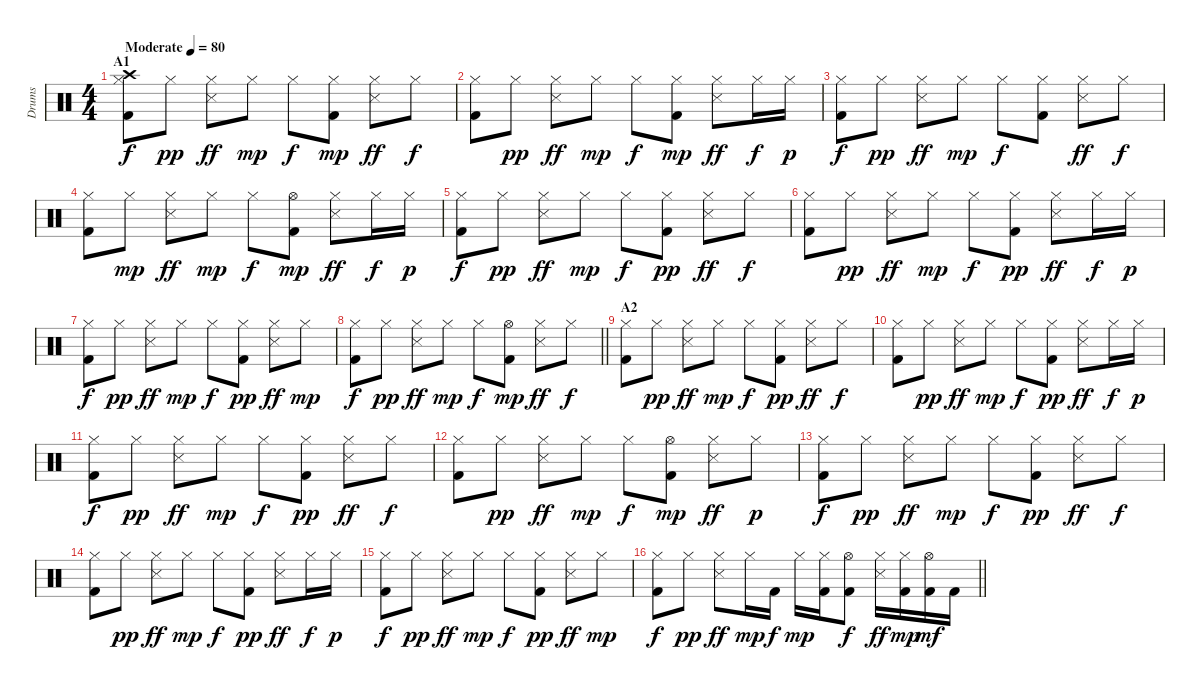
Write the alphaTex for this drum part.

\track ("Drums" "Drums") {instrument percussion}
\staff {score}
\articulation defaults
\ts (4 4)
\section ("" "A1")
\tempo (80 "Moderate")
\clef neutral
\ks c
("Hi-Hat (closed)" "Kick (hit) 2" "Crash high (hit)").8{dy f} "Hi-Hat (closed)".8{dy pp} ("Hi-Hat (closed)" "Snare (side stick) 3").8{dy ff} "Hi-Hat (closed)".8{dy mp} "Hi-Hat (closed)".8{dy f} ("Hi-Hat (closed)" "Kick (hit) 2").8{dy mp} ("Hi-Hat (closed)" "Snare (side stick) 3").8{dy ff} "Hi-Hat (closed)".8{dy f} |
("Hi-Hat (closed)" "Kick (hit) 2").8 "Hi-Hat (closed)".8{dy pp} ("Hi-Hat (closed)" "Snare (side stick) 3").8{dy ff} "Hi-Hat (closed)".8{dy mp} "Hi-Hat (closed)".8{dy f} ("Hi-Hat (closed)" "Kick (hit) 2").8{dy mp} ("Hi-Hat (closed)" "Snare (side stick) 3").8{dy ff} "Hi-Hat (closed)".16{dy f} "Hi-Hat (closed)".16{dy p} |
("Hi-Hat (closed)" "Kick (hit) 2").8{dy f} "Hi-Hat (closed)".8{dy pp} ("Hi-Hat (closed)" "Snare (side stick) 3").8{dy ff} "Hi-Hat (closed)".8{dy mp} "Hi-Hat (closed)".8{dy f} ("Hi-Hat (closed)" "Kick (hit) 2").8 ("Hi-Hat (closed)" "Snare (side stick) 3").8{dy ff} "Hi-Hat (closed)".8{dy f} |
("Hi-Hat (closed)" "Kick (hit) 2").8 "Hi-Hat (closed)".8{dy mp} ("Hi-Hat (closed)" "Snare (side stick) 3").8{dy ff} "Hi-Hat (closed)".8{dy mp} "Hi-Hat (closed)".8{dy f} ("Hi-Hat (open)" "Kick (hit) 2").8{dy mp} ("Hi-Hat (closed)" "Snare (side stick) 3").8{dy ff} "Hi-Hat (closed)".16{dy f} "Hi-Hat (closed)".16{dy p} |
("Hi-Hat (closed)" "Kick (hit) 2").8{dy f} "Hi-Hat (closed)".8{dy pp} ("Hi-Hat (closed)" "Snare (side stick) 3").8{dy ff} "Hi-Hat (closed)".8{dy mp} "Hi-Hat (closed)".8{dy f} ("Hi-Hat (closed)" "Kick (hit) 2").8{dy pp} ("Hi-Hat (closed)" "Snare (side stick) 3").8{dy ff} "Hi-Hat (closed)".8{dy f} |
("Hi-Hat (closed)" "Kick (hit) 2").8 "Hi-Hat (closed)".8{dy pp} ("Hi-Hat (closed)" "Snare (side stick) 3").8{dy ff} "Hi-Hat (closed)".8{dy mp} "Hi-Hat (closed)".8{dy f} ("Hi-Hat (closed)" "Kick (hit) 2").8{dy pp} ("Hi-Hat (closed)" "Snare (side stick) 3").8{dy ff} "Hi-Hat (closed)".16{dy f} "Hi-Hat (closed)".16{dy p} |
("Hi-Hat (closed)" "Kick (hit) 2").8{dy f} "Hi-Hat (closed)".8{dy pp} ("Hi-Hat (closed)" "Snare (side stick) 3").8{dy ff} "Hi-Hat (closed)".8{dy mp} "Hi-Hat (closed)".8{dy f} ("Hi-Hat (closed)" "Kick (hit) 2").8{dy pp} ("Hi-Hat (closed)" "Snare (side stick) 3").8{dy ff} "Hi-Hat (closed)".8{dy mp} |
\barLineRight lightlight
("Hi-Hat (closed)" "Kick (hit) 2").8{dy f} "Hi-Hat (closed)".8{dy pp} ("Hi-Hat (closed)" "Snare (side stick) 3").8{dy ff} "Hi-Hat (closed)".8{dy mp} "Hi-Hat (closed)".8{dy f} ("Hi-Hat (open)" "Kick (hit) 2").8{dy mp} ("Hi-Hat (closed)" "Snare (side stick) 3").8{dy ff} "Hi-Hat (closed)".8{dy f} |
\section ("" "A2")
("Hi-Hat (closed)" "Kick (hit) 2").8 "Hi-Hat (closed)".8{dy pp} ("Hi-Hat (closed)" "Snare (side stick) 3").8{dy ff} "Hi-Hat (closed)".8{dy mp} "Hi-Hat (closed)".8{dy f} ("Hi-Hat (closed)" "Kick (hit) 2").8{dy pp} ("Hi-Hat (closed)" "Snare (side stick) 3").8{dy ff} "Hi-Hat (closed)".8{dy f} |
("Hi-Hat (closed)" "Kick (hit) 2").8 "Hi-Hat (closed)".8{dy pp} ("Hi-Hat (closed)" "Snare (side stick) 3").8{dy ff} "Hi-Hat (closed)".8{dy mp} "Hi-Hat (closed)".8{dy f} ("Hi-Hat (closed)" "Kick (hit) 2").8{dy pp} ("Hi-Hat (closed)" "Snare (side stick) 3").8{dy ff} "Hi-Hat (closed)".16{dy f} "Hi-Hat (closed)".16{dy p} |
("Hi-Hat (closed)" "Kick (hit) 2").8{dy f} "Hi-Hat (closed)".8{dy pp} ("Hi-Hat (closed)" "Snare (side stick) 3").8{dy ff} "Hi-Hat (closed)".8{dy mp} "Hi-Hat (closed)".8{dy f} ("Hi-Hat (closed)" "Kick (hit) 2").8{dy pp} ("Hi-Hat (closed)" "Snare (side stick) 3").8{dy ff} "Hi-Hat (closed)".8{dy f} |
("Hi-Hat (closed)" "Kick (hit) 2").8 "Hi-Hat (closed)".8{dy pp} ("Hi-Hat (closed)" "Snare (side stick) 3").8{dy ff} "Hi-Hat (closed)".8{dy mp} "Hi-Hat (closed)".8{dy f} ("Hi-Hat (open)" "Kick (hit) 2").8{dy mp} ("Hi-Hat (closed)" "Snare (side stick) 3").8{dy ff} "Hi-Hat (closed)".8{dy p} |
("Hi-Hat (closed)" "Kick (hit) 2").8{dy f} "Hi-Hat (closed)".8{dy pp} ("Hi-Hat (closed)" "Snare (side stick) 3").8{dy ff} "Hi-Hat (closed)".8{dy mp} "Hi-Hat (closed)".8{dy f} ("Hi-Hat (closed)" "Kick (hit) 2").8{dy pp} ("Hi-Hat (closed)" "Snare (side stick) 3").8{dy ff} "Hi-Hat (closed)".8{dy f} |
("Hi-Hat (closed)" "Kick (hit) 2").8 "Hi-Hat (closed)".8{dy pp} ("Hi-Hat (closed)" "Snare (side stick) 3").8{dy ff} "Hi-Hat (closed)".8{dy mp} "Hi-Hat (closed)".8{dy f} ("Hi-Hat (closed)" "Kick (hit) 2").8{dy pp} ("Hi-Hat (closed)" "Snare (side stick) 3").8{dy ff} "Hi-Hat (closed)".16{dy f} "Hi-Hat (closed)".16{dy p} |
("Hi-Hat (closed)" "Kick (hit) 2").8{dy f} "Hi-Hat (closed)".8{dy pp} ("Hi-Hat (closed)" "Snare (side stick) 3").8{dy ff} "Hi-Hat (closed)".8{dy mp} "Hi-Hat (closed)".8{dy f} ("Hi-Hat (closed)" "Kick (hit) 2").8{dy pp} ("Hi-Hat (closed)" "Snare (side stick) 3").8{dy ff} "Hi-Hat (closed)".8{dy mp} |
\barLineRight lightlight
("Hi-Hat (closed)" "Kick (hit) 2").8{dy f} "Hi-Hat (closed)".8{dy pp} ("Hi-Hat (closed)" "Snare (side stick) 3").8{dy ff} "Hi-Hat (closed)".16{dy mp} "Kick (hit) 2".16{dy f} "Hi-Hat (closed)".16{dy mp} ("Hi-Hat (closed)" "Kick (hit) 2").16 ("Hi-Hat (open)" "Kick (hit) 2").8{dy f} ("Hi-Hat (closed)" "Snare (side stick) 3").16{dy ff} ("Hi-Hat (closed)" "Kick (hit) 2").16{dy mp} ("Hi-Hat (open)" "Kick (hit) 2").16{dy mf} "Kick (hit) 2".16
